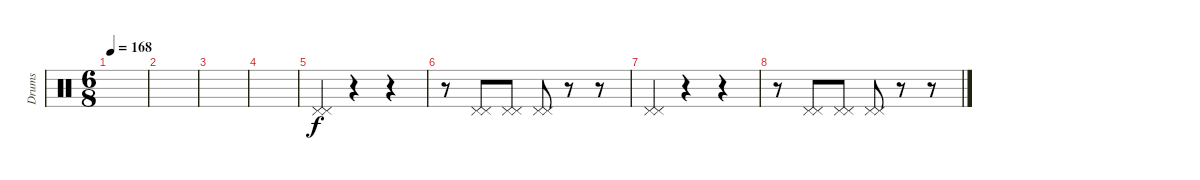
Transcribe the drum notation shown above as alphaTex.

\track ("Drums" "Drums") {instrument percussion}
\staff {score}
\articulation defaults
\ts (6 8)
\tempo 168
\clef neutral
\ks c
|
|
|
|
("Pedal Hi-Hat (hit)" "Pedal Hi-Hat (hit)").4 r.4 r.4 |
r.8 ("Pedal Hi-Hat (hit)" "Pedal Hi-Hat (hit)").8 ("Pedal Hi-Hat (hit)" "Pedal Hi-Hat (hit)").8 ("Pedal Hi-Hat (hit)" "Pedal Hi-Hat (hit)").8 r.8 r.8 |
("Pedal Hi-Hat (hit)" "Pedal Hi-Hat (hit)").4 r.4 r.4 |
r.8 ("Pedal Hi-Hat (hit)" "Pedal Hi-Hat (hit)").8 ("Pedal Hi-Hat (hit)" "Pedal Hi-Hat (hit)").8 ("Pedal Hi-Hat (hit)" "Pedal Hi-Hat (hit)").8 r.8 r.8
